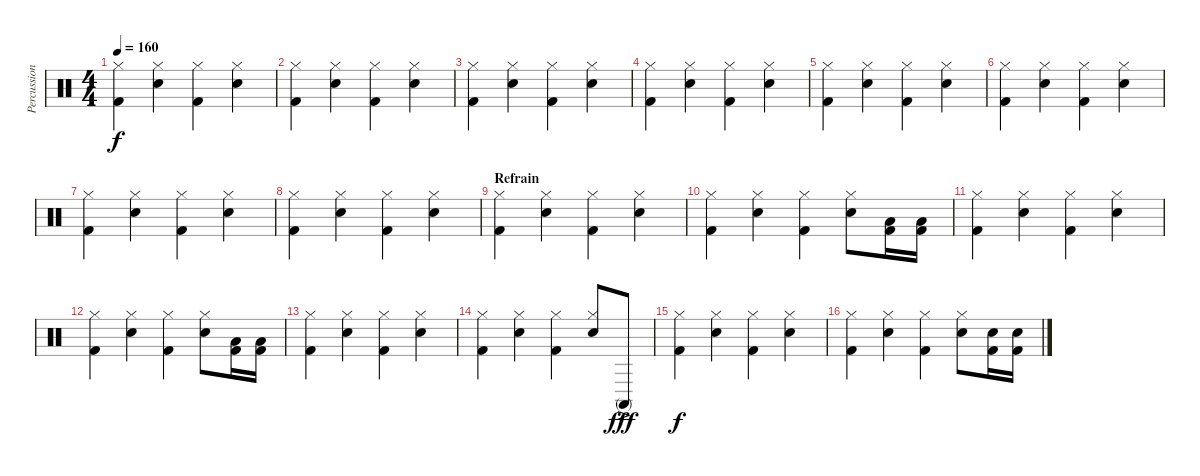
\track ("Percussions" "Percussion") {instrument percussion}
\staff {score}
\articulation defaults
\ts (4 4)
\tempo 160
\clef neutral
\ks c
("Hi-Hat (closed)" "Kick (hit) 2").4{dy f} ("Hi-Hat (closed)" "Snare (hit) 2").4 ("Hi-Hat (closed)" "Kick (hit) 2").4 ("Hi-Hat (closed)" "Snare (hit) 2").4 |
("Hi-Hat (closed)" "Kick (hit) 2").4 ("Hi-Hat (closed)" "Snare (hit) 2").4 ("Hi-Hat (closed)" "Kick (hit) 2").4 ("Hi-Hat (closed)" "Snare (hit) 2").4 |
("Hi-Hat (closed)" "Kick (hit) 2").4 ("Hi-Hat (closed)" "Snare (hit) 2").4 ("Hi-Hat (closed)" "Kick (hit) 2").4 ("Hi-Hat (closed)" "Snare (hit) 2").4 |
("Hi-Hat (closed)" "Kick (hit) 2").4 ("Hi-Hat (closed)" "Snare (hit) 2").4 ("Hi-Hat (closed)" "Kick (hit) 2").4 ("Hi-Hat (closed)" "Snare (hit) 2").4 |
("Hi-Hat (closed)" "Kick (hit) 2").4 ("Hi-Hat (closed)" "Snare (hit) 2").4 ("Hi-Hat (closed)" "Kick (hit) 2").4 ("Hi-Hat (closed)" "Snare (hit) 2").4 |
("Hi-Hat (closed)" "Kick (hit) 2").4 ("Hi-Hat (closed)" "Snare (hit) 2").4 ("Hi-Hat (closed)" "Kick (hit) 2").4 ("Hi-Hat (closed)" "Snare (hit) 2").4 |
("Hi-Hat (closed)" "Kick (hit) 2").4 ("Hi-Hat (closed)" "Snare (hit) 2").4 ("Hi-Hat (closed)" "Kick (hit) 2").4 ("Hi-Hat (closed)" "Snare (hit) 2").4 |
("Hi-Hat (closed)" "Kick (hit) 2").4 ("Hi-Hat (closed)" "Snare (hit) 2").4 ("Hi-Hat (closed)" "Kick (hit) 2").4 ("Hi-Hat (closed)" "Snare (hit) 2").4 |
\section ("" "Refrain")
("Hi-Hat (closed)" "Kick (hit) 2").4 ("Hi-Hat (closed)" "Snare (hit) 2").4 ("Hi-Hat (closed)" "Kick (hit) 2").4 ("Hi-Hat (closed)" "Snare (hit) 2").4 |
("Hi-Hat (closed)" "Kick (hit) 2").4 ("Hi-Hat (closed)" "Snare (hit) 2").4 ("Hi-Hat (closed)" "Kick (hit) 2").4 ("Hi-Hat (closed)" "Snare (hit) 2").8 ("Low Tom (hit)" "Kick (hit) 2").16 ("Low Floor Tom (hit)" "Kick (hit) 2").16 |
("Hi-Hat (closed)" "Kick (hit) 2").4 ("Hi-Hat (closed)" "Snare (hit) 2").4 ("Hi-Hat (closed)" "Kick (hit) 2").4 ("Hi-Hat (closed)" "Snare (hit) 2").4 |
("Hi-Hat (closed)" "Kick (hit) 2").4 ("Hi-Hat (closed)" "Snare (hit) 2").4 ("Hi-Hat (closed)" "Kick (hit) 2").4 ("Hi-Hat (closed)" "Snare (hit) 2").8 ("Low Tom (hit)" "Kick (hit) 2").16 ("Low Floor Tom (hit)" "Kick (hit) 2").16 |
("Hi-Hat (closed)" "Kick (hit) 2").4 ("Hi-Hat (closed)" "Snare (hit) 2").4 ("Hi-Hat (closed)" "Kick (hit) 2").4 ("Hi-Hat (closed)" "Snare (hit) 2").4 |
("Hi-Hat (closed)" "Kick (hit) 2").4 ("Hi-Hat (closed)" "Snare (hit) 2").4 ("Hi-Hat (closed)" "Kick (hit) 2").4 ("Hi-Hat (closed)" "Snare (hit) 2").8 "Conga high (mute)"{ac}.8{dy fff} |
("Hi-Hat (closed)" "Kick (hit) 2").4{dy f} ("Hi-Hat (closed)" "Snare (hit) 2").4 ("Hi-Hat (closed)" "Kick (hit) 2").4 ("Hi-Hat (closed)" "Snare (hit) 2").4 |
("Hi-Hat (closed)" "Kick (hit) 2").4 ("Hi-Hat (closed)" "Snare (hit) 2").4 ("Hi-Hat (closed)" "Kick (hit) 2").4 ("Hi-Hat (closed)" "Snare (hit) 2").8 ("Snare (hit) 2" "Kick (hit) 2").16 ("Snare (hit) 2" "Kick (hit) 2").16
